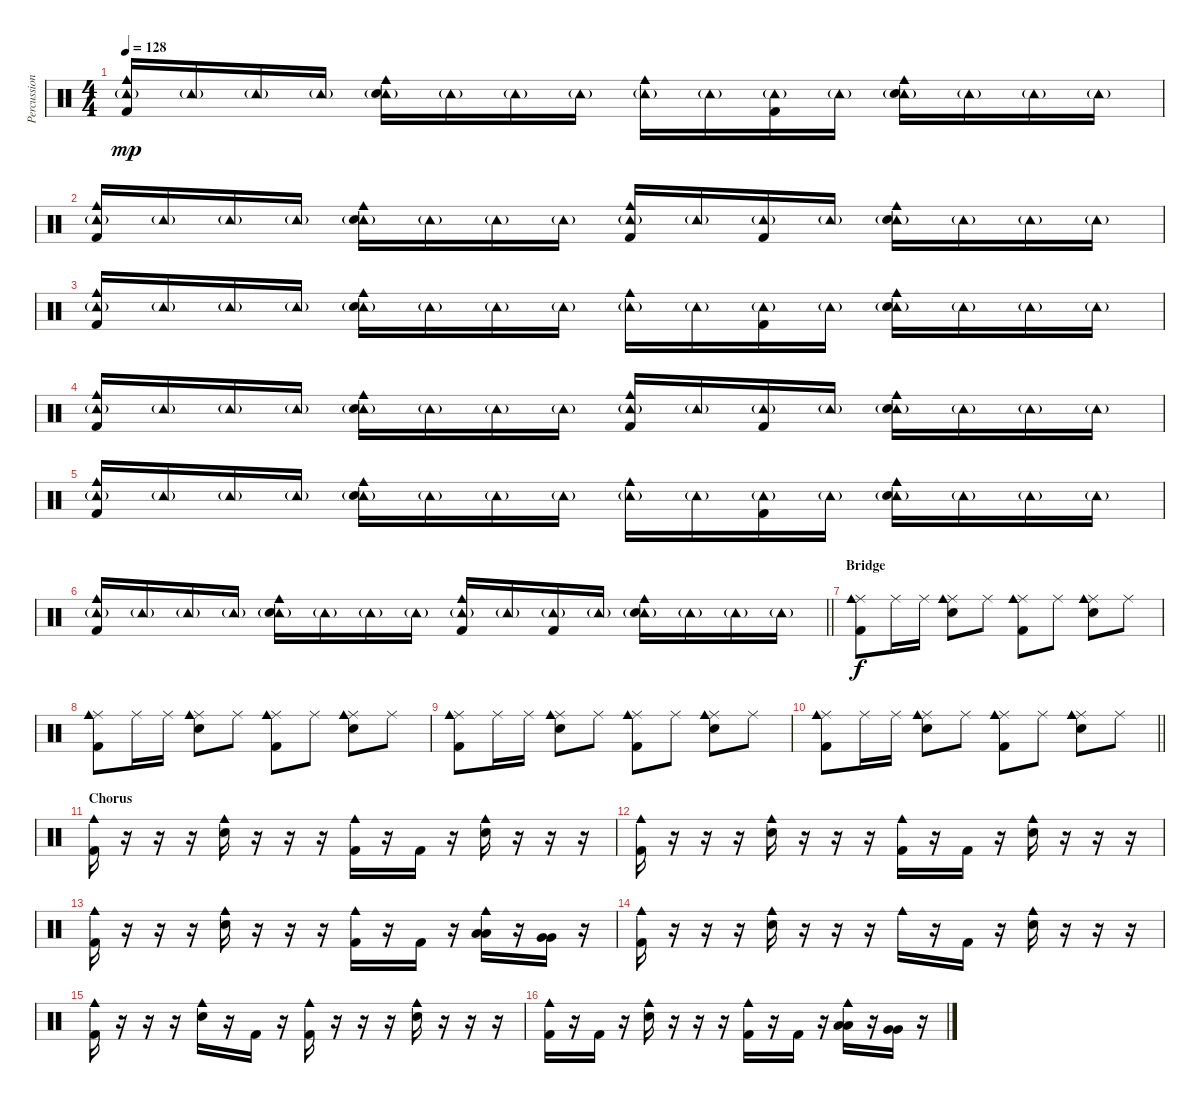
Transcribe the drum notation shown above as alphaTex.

\track ("Percussion" "Percussion") {instrument percussion}
\staff {score}
\articulation defaults
\ts (4 4)
\tempo 128
\clef neutral
\ks c
("Tambourine (hit)"{g} "Cowbell medium (hit)" "Kick (hit) 2").16{dy mp} "Tambourine (hit)"{g}.16 "Tambourine (hit)"{g}.16 "Tambourine (hit)"{g}.16 ("Tambourine (hit)"{g} "Cowbell medium (hit)" "Snare (hit) 2").16 "Tambourine (hit)"{g}.16 "Tambourine (hit)"{g}.16 "Tambourine (hit)"{g}.16 ("Tambourine (hit)"{g} "Cowbell medium (hit)").16 "Tambourine (hit)"{g}.16 ("Tambourine (hit)"{g} "Kick (hit) 2").16 "Tambourine (hit)"{g}.16 ("Tambourine (hit)"{g} "Cowbell medium (hit)" "Snare (hit) 2").16 "Tambourine (hit)"{g}.16 "Tambourine (hit)"{g}.16 "Tambourine (hit)"{g}.16 |
("Tambourine (hit)"{g} "Cowbell medium (hit)" "Kick (hit) 2").16 "Tambourine (hit)"{g}.16 "Tambourine (hit)"{g}.16 "Tambourine (hit)"{g}.16 ("Tambourine (hit)"{g} "Cowbell medium (hit)" "Snare (hit) 2").16 "Tambourine (hit)"{g}.16 "Tambourine (hit)"{g}.16 "Tambourine (hit)"{g}.16 ("Tambourine (hit)"{g} "Cowbell medium (hit)" "Kick (hit) 2").16 "Tambourine (hit)"{g}.16 ("Tambourine (hit)"{g} "Kick (hit) 2").16 "Tambourine (hit)"{g}.16 ("Tambourine (hit)"{g} "Cowbell medium (hit)" "Snare (hit) 2").16 "Tambourine (hit)"{g}.16 "Tambourine (hit)"{g}.16 "Tambourine (hit)"{g}.16 |
("Tambourine (hit)"{g} "Cowbell medium (hit)" "Kick (hit) 2").16 "Tambourine (hit)"{g}.16 "Tambourine (hit)"{g}.16 "Tambourine (hit)"{g}.16 ("Tambourine (hit)"{g} "Cowbell medium (hit)" "Snare (hit) 2").16 "Tambourine (hit)"{g}.16 "Tambourine (hit)"{g}.16 "Tambourine (hit)"{g}.16 ("Tambourine (hit)"{g} "Cowbell medium (hit)").16 "Tambourine (hit)"{g}.16 ("Tambourine (hit)"{g} "Kick (hit) 2").16 "Tambourine (hit)"{g}.16 ("Tambourine (hit)"{g} "Cowbell medium (hit)" "Snare (hit) 2").16 "Tambourine (hit)"{g}.16 "Tambourine (hit)"{g}.16 "Tambourine (hit)"{g}.16 |
("Tambourine (hit)"{g} "Cowbell medium (hit)" "Kick (hit) 2").16 "Tambourine (hit)"{g}.16 "Tambourine (hit)"{g}.16 "Tambourine (hit)"{g}.16 ("Tambourine (hit)"{g} "Cowbell medium (hit)" "Snare (hit) 2").16 "Tambourine (hit)"{g}.16 "Tambourine (hit)"{g}.16 "Tambourine (hit)"{g}.16 ("Tambourine (hit)"{g} "Cowbell medium (hit)" "Kick (hit) 2").16 "Tambourine (hit)"{g}.16 ("Tambourine (hit)"{g} "Kick (hit) 2").16 "Tambourine (hit)"{g}.16 ("Tambourine (hit)"{g} "Cowbell medium (hit)" "Snare (hit) 2").16 "Tambourine (hit)"{g}.16 "Tambourine (hit)"{g}.16 "Tambourine (hit)"{g}.16 |
("Tambourine (hit)"{g} "Cowbell medium (hit)" "Kick (hit) 2").16 "Tambourine (hit)"{g}.16 "Tambourine (hit)"{g}.16 "Tambourine (hit)"{g}.16 ("Tambourine (hit)"{g} "Cowbell medium (hit)" "Snare (hit) 2").16 "Tambourine (hit)"{g}.16 "Tambourine (hit)"{g}.16 "Tambourine (hit)"{g}.16 ("Tambourine (hit)"{g} "Cowbell medium (hit)").16 "Tambourine (hit)"{g}.16 ("Tambourine (hit)"{g} "Kick (hit) 2").16 "Tambourine (hit)"{g}.16 ("Tambourine (hit)"{g} "Cowbell medium (hit)" "Snare (hit) 2").16 "Tambourine (hit)"{g}.16 "Tambourine (hit)"{g}.16 "Tambourine (hit)"{g}.16 |
\barLineRight lightlight
("Tambourine (hit)"{g} "Cowbell medium (hit)" "Kick (hit) 2").16 "Tambourine (hit)"{g}.16 "Tambourine (hit)"{g}.16 "Tambourine (hit)"{g}.16 ("Tambourine (hit)"{g} "Cowbell medium (hit)" "Snare (hit) 2").16 "Tambourine (hit)"{g}.16 "Tambourine (hit)"{g}.16 "Tambourine (hit)"{g}.16 ("Tambourine (hit)"{g} "Cowbell medium (hit)" "Kick (hit) 2").16 "Tambourine (hit)"{g}.16 ("Tambourine (hit)"{g} "Kick (hit) 2").16 "Tambourine (hit)"{g}.16 ("Tambourine (hit)"{g} "Cowbell medium (hit)" "Snare (hit) 2").16 "Tambourine (hit)"{g}.16 "Tambourine (hit)"{g}.16 "Tambourine (hit)"{g}.16 |
\section ("" "Bridge")
("Ride (middle)" "Cowbell medium (hit)" "Kick (hit) 2").8{dy f} "Ride (middle)".16 "Ride (middle)".16 ("Ride (middle)" "Cowbell medium (hit)" "Snare (hit) 2").8 "Ride (middle)".8 ("Ride (middle)" "Cowbell medium (hit)" "Kick (hit) 2").8 "Ride (middle)".8 ("Ride (middle)" "Cowbell medium (hit)" "Snare (hit) 2").8 "Ride (middle)".8 |
("Ride (middle)" "Cowbell medium (hit)" "Kick (hit) 2").8 "Ride (middle)".16 "Ride (middle)".16 ("Ride (middle)" "Cowbell medium (hit)" "Snare (hit) 2").8 "Ride (middle)".8 ("Ride (middle)" "Cowbell medium (hit)" "Kick (hit) 2").8 "Ride (middle)".8 ("Ride (middle)" "Cowbell medium (hit)" "Snare (hit) 2").8 "Ride (middle)".8 |
("Ride (middle)" "Cowbell medium (hit)" "Kick (hit) 2").8 "Ride (middle)".16 "Ride (middle)".16 ("Ride (middle)" "Cowbell medium (hit)" "Snare (hit) 2").8 "Ride (middle)".8 ("Ride (middle)" "Cowbell medium (hit)" "Kick (hit) 2").8 "Ride (middle)".8 ("Ride (middle)" "Cowbell medium (hit)" "Snare (hit) 2").8 "Ride (middle)".8 |
\barLineRight lightlight
("Ride (middle)" "Cowbell medium (hit)" "Kick (hit) 2").8 "Ride (middle)".16 "Ride (middle)".16 ("Ride (middle)" "Cowbell medium (hit)" "Snare (hit) 2").8 "Ride (middle)".8 ("Ride (middle)" "Cowbell medium (hit)" "Kick (hit) 2").8 "Ride (middle)".8 ("Ride (middle)" "Cowbell medium (hit)" "Snare (hit) 2").8 "Ride (middle)".8 |
\section ("" "Chorus")
("Cowbell medium (hit)" "Kick (hit) 2").16 r.16 r.16 r.16 ("Cowbell medium (hit)" "Snare (hit) 2").16 r.16 r.16 r.16 ("Cowbell medium (hit)" "Kick (hit) 2").16 r.16 "Kick (hit) 2".16 r.16 ("Cowbell medium (hit)" "Snare (hit) 2").16 r.16 r.16 r.16 |
("Cowbell medium (hit)" "Kick (hit) 2").16 r.16 r.16 r.16 ("Cowbell medium (hit)" "Snare (hit) 2").16 r.16 r.16 r.16 ("Cowbell medium (hit)" "Kick (hit) 2").16 r.16 "Kick (hit) 2".16 r.16 ("Cowbell medium (hit)" "Snare (hit) 2").16 r.16 r.16 r.16 |
("Cowbell medium (hit)" "Kick (hit) 2").16 r.16 r.16 r.16 ("Cowbell medium (hit)" "Snare (hit) 2").16 r.16 r.16 r.16 ("Cowbell medium (hit)" "Kick (hit) 2").16 r.16 "Kick (hit) 2".16 r.16 ("Cowbell medium (hit)" "Low Tom (hit)" "Low Tom (hit)").16 r.16 ("Very Low Tom (hit)" "Very Low Tom (hit)").16 r.16 |
("Cowbell medium (hit)" "Kick (hit) 2").16 r.16 r.16 r.16 ("Cowbell medium (hit)" "Snare (hit) 2").16 r.16 r.16 r.16 "Cowbell medium (hit)".16 r.16 "Kick (hit) 2".16 r.16 ("Cowbell medium (hit)" "Snare (hit) 2").16 r.16 r.16 r.16 |
("Cowbell medium (hit)" "Kick (hit) 2").16 r.16 r.16 r.16 ("Cowbell medium (hit)" "Snare (hit) 2").16 r.16 "Kick (hit) 2".16 r.16 ("Cowbell medium (hit)" "Kick (hit) 2").16 r.16 r.16 r.16 ("Cowbell medium (hit)" "Snare (hit) 2").16 r.16 r.16 r.16 |
("Cowbell medium (hit)" "Kick (hit) 2").16 r.16 "Kick (hit) 2".16 r.16 ("Cowbell medium (hit)" "Snare (hit) 2").16 r.16 r.16 r.16 ("Cowbell medium (hit)" "Kick (hit) 2").16 r.16 "Kick (hit) 2".16 r.16 ("Cowbell medium (hit)" "Low Tom (hit)" "Low Tom (hit)").16 r.16 ("Very Low Tom (hit)" "Very Low Tom (hit)").16 r.16
